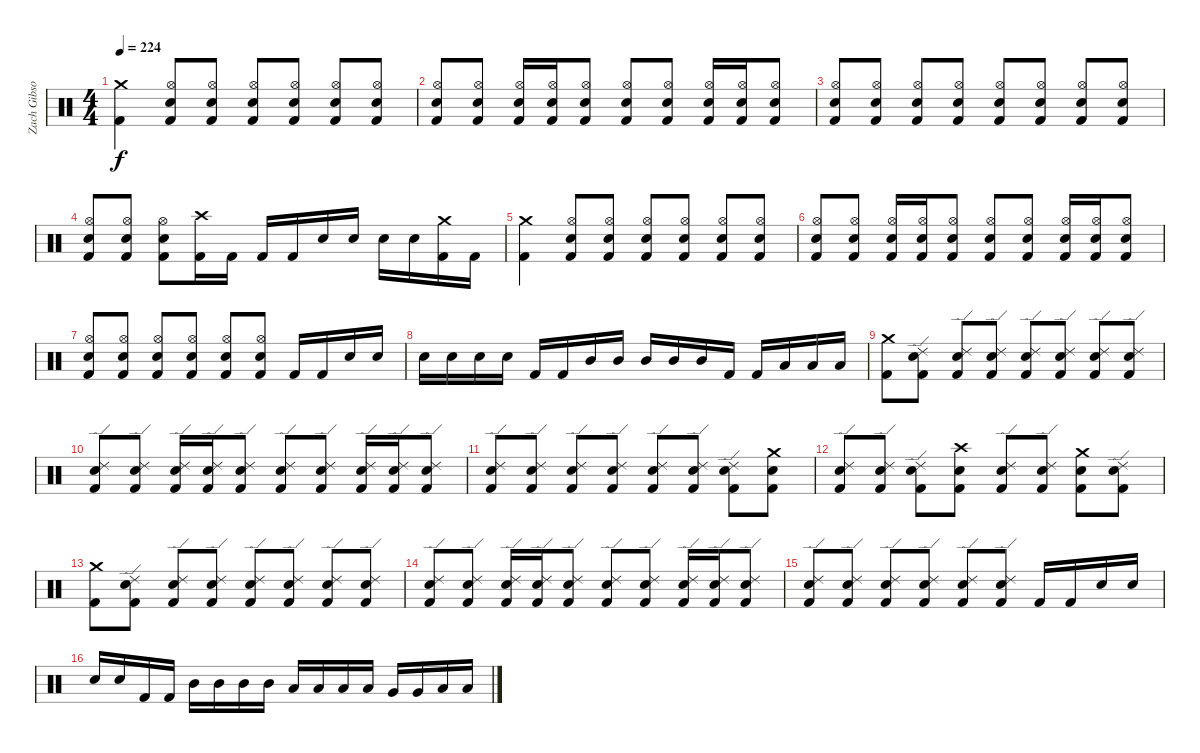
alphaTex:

\track ("Zach Gibson (Drums)" "Zach Gibso") {instrument percussion}
\staff {score}
\articulation defaults
\ts (4 4)
\tempo 224
\clef neutral
\ks c
("Crash medium (hit)" "Kick (hit) 2").4{dy f} ("Hi-Hat (open)" "Kick (hit) 2" "Snare (hit) 2").8 ("Hi-Hat (open)" "Kick (hit) 2" "Snare (hit) 2").8 ("Hi-Hat (open)" "Kick (hit) 2" "Snare (hit) 2").8 ("Hi-Hat (open)" "Kick (hit) 2" "Snare (hit) 2").8 ("Hi-Hat (open)" "Kick (hit) 2" "Snare (hit) 2").8 ("Hi-Hat (open)" "Kick (hit) 2" "Snare (hit) 2").8 |
("Hi-Hat (open)" "Kick (hit) 2" "Snare (hit) 2").8 ("Hi-Hat (open)" "Kick (hit) 2" "Snare (hit) 2").8 ("Hi-Hat (open)" "Kick (hit) 2" "Snare (hit) 2").16 ("Hi-Hat (open)" "Kick (hit) 2" "Snare (hit) 2").16 ("Hi-Hat (open)" "Kick (hit) 2" "Snare (hit) 2").8 ("Hi-Hat (open)" "Kick (hit) 2" "Snare (hit) 2").8 ("Hi-Hat (open)" "Kick (hit) 2" "Snare (hit) 2").8 ("Hi-Hat (open)" "Kick (hit) 2" "Snare (hit) 2").16 ("Hi-Hat (open)" "Kick (hit) 2" "Snare (hit) 2").16 ("Hi-Hat (open)" "Kick (hit) 2" "Snare (hit) 2").8 |
("Hi-Hat (open)" "Kick (hit) 2" "Snare (hit) 2").8 ("Hi-Hat (open)" "Kick (hit) 2" "Snare (hit) 2").8 ("Hi-Hat (open)" "Kick (hit) 2" "Snare (hit) 2").8 ("Hi-Hat (open)" "Kick (hit) 2" "Snare (hit) 2").8 ("Hi-Hat (open)" "Kick (hit) 2" "Snare (hit) 2").8 ("Hi-Hat (open)" "Kick (hit) 2" "Snare (hit) 2").8 ("Hi-Hat (open)" "Kick (hit) 2" "Snare (hit) 2").8 ("Hi-Hat (open)" "Kick (hit) 2" "Snare (hit) 2").8 |
("Hi-Hat (open)" "Kick (hit) 2" "Snare (hit) 2").8 ("Hi-Hat (open)" "Kick (hit) 2" "Snare (hit) 2").8 ("Hi-Hat (open)" "Kick (hit) 2" "Snare (hit) 2").8 ("Crash high (hit)" "Kick (hit) 2").16 "Kick (hit) 2".16 "Kick (hit) 2".16 "Kick (hit) 2".16 "Snare (hit) 2".16 "Snare (hit) 2".16 "Snare (hit) 2".16 "Snare (hit) 2".16 ("Crash medium (hit)" "Kick (hit) 2").16 "Kick (hit) 2".16 |
("Crash medium (hit)" "Kick (hit) 2").4 ("Hi-Hat (open)" "Kick (hit) 2" "Snare (hit) 2").8 ("Hi-Hat (open)" "Kick (hit) 2" "Snare (hit) 2").8 ("Hi-Hat (open)" "Kick (hit) 2" "Snare (hit) 2").8 ("Hi-Hat (open)" "Kick (hit) 2" "Snare (hit) 2").8 ("Hi-Hat (open)" "Kick (hit) 2" "Snare (hit) 2").8 ("Hi-Hat (open)" "Kick (hit) 2" "Snare (hit) 2").8 |
("Hi-Hat (open)" "Kick (hit) 2" "Snare (hit) 2").8 ("Hi-Hat (open)" "Kick (hit) 2" "Snare (hit) 2").8 ("Hi-Hat (open)" "Kick (hit) 2" "Snare (hit) 2").16 ("Hi-Hat (open)" "Kick (hit) 2" "Snare (hit) 2").16 ("Hi-Hat (open)" "Kick (hit) 2" "Snare (hit) 2").8 ("Hi-Hat (open)" "Kick (hit) 2" "Snare (hit) 2").8 ("Hi-Hat (open)" "Kick (hit) 2" "Snare (hit) 2").8 ("Hi-Hat (open)" "Kick (hit) 2" "Snare (hit) 2").16 ("Hi-Hat (open)" "Kick (hit) 2" "Snare (hit) 2").16 ("Hi-Hat (open)" "Kick (hit) 2" "Snare (hit) 2").8 |
("Hi-Hat (open)" "Kick (hit) 2" "Snare (hit) 2").8 ("Hi-Hat (open)" "Kick (hit) 2" "Snare (hit) 2").8 ("Hi-Hat (open)" "Kick (hit) 2" "Snare (hit) 2").8 ("Hi-Hat (open)" "Kick (hit) 2" "Snare (hit) 2").8 ("Hi-Hat (open)" "Kick (hit) 2" "Snare (hit) 2").8 ("Hi-Hat (open)" "Kick (hit) 2" "Snare (hit) 2").8 "Kick (hit) 2".16 "Kick (hit) 2".16 "Snare (hit) 2".16 "Snare (hit) 2".16 |
"Snare (hit) 2".16 "Snare (hit) 2".16 "Snare (hit) 2".16 "Snare (hit) 2".16 "Kick (hit) 2".16 "Kick (hit) 2".16 "Mid Tom (hit)".16 "Mid Tom (hit)".16 "Mid Tom (hit)".16 "Mid Tom (hit)".16 "Mid Tom (hit)".16 "Kick (hit) 2".16 "Kick (hit) 2".16 "Low Tom (hit)".16 "Low Tom (hit)".16 "Low Tom (hit)".16 |
("Crash medium (hit)" "Kick (hit) 2").8 ("Ride (edge) 2" "Kick (hit) 2" "Snare (hit) 2").8 ("Ride (edge) 2" "Kick (hit) 2" "Snare (hit) 2").8 ("Ride (edge) 2" "Kick (hit) 2" "Snare (hit) 2").8 ("Ride (edge) 2" "Kick (hit) 2" "Snare (hit) 2").8 ("Ride (edge) 2" "Kick (hit) 2" "Snare (hit) 2").8 ("Ride (edge) 2" "Kick (hit) 2" "Snare (hit) 2").8 ("Ride (edge) 2" "Kick (hit) 2" "Snare (hit) 2").8 |
("Ride (edge) 2" "Kick (hit) 2" "Snare (hit) 2").8 ("Ride (edge) 2" "Kick (hit) 2" "Snare (hit) 2").8 ("Ride (edge) 2" "Kick (hit) 2" "Snare (hit) 2").16 ("Ride (edge) 2" "Kick (hit) 2" "Snare (hit) 2").16 ("Ride (edge) 2" "Kick (hit) 2" "Snare (hit) 2").8 ("Ride (edge) 2" "Kick (hit) 2" "Snare (hit) 2").8 ("Ride (edge) 2" "Kick (hit) 2" "Snare (hit) 2").8 ("Ride (edge) 2" "Kick (hit) 2" "Snare (hit) 2").16 ("Ride (edge) 2" "Kick (hit) 2" "Snare (hit) 2").16 ("Ride (edge) 2" "Kick (hit) 2" "Snare (hit) 2").8 |
("Ride (edge) 2" "Kick (hit) 2" "Snare (hit) 2").8 ("Ride (edge) 2" "Kick (hit) 2" "Snare (hit) 2").8 ("Ride (edge) 2" "Kick (hit) 2" "Snare (hit) 2").8 ("Ride (edge) 2" "Kick (hit) 2" "Snare (hit) 2").8 ("Ride (edge) 2" "Kick (hit) 2" "Snare (hit) 2").8 ("Ride (edge) 2" "Kick (hit) 2" "Snare (hit) 2").8 ("Ride (edge) 2" "Kick (hit) 2" "Snare (hit) 2").8 ("Crash medium (hit)" "Kick (hit) 2" "Snare (hit) 2").8 |
("Ride (edge) 2" "Kick (hit) 2" "Snare (hit) 2").8 ("Ride (edge) 2" "Kick (hit) 2" "Snare (hit) 2").8 ("Ride (edge) 2" "Kick (hit) 2" "Snare (hit) 2").8 ("Crash high (hit)" "Kick (hit) 2" "Snare (hit) 2").8 ("Ride (edge) 2" "Kick (hit) 2" "Snare (hit) 2").8 ("Ride (edge) 2" "Kick (hit) 2" "Snare (hit) 2").8 ("Crash medium (hit)" "Kick (hit) 2" "Snare (hit) 2").8 ("Ride (edge) 2" "Kick (hit) 2" "Snare (hit) 2").8 |
("Crash medium (hit)" "Kick (hit) 2").8 ("Ride (edge) 2" "Kick (hit) 2" "Snare (hit) 2").8 ("Ride (edge) 2" "Kick (hit) 2" "Snare (hit) 2").8 ("Ride (edge) 2" "Kick (hit) 2" "Snare (hit) 2").8 ("Ride (edge) 2" "Kick (hit) 2" "Snare (hit) 2").8 ("Ride (edge) 2" "Kick (hit) 2" "Snare (hit) 2").8 ("Ride (edge) 2" "Kick (hit) 2" "Snare (hit) 2").8 ("Ride (edge) 2" "Kick (hit) 2" "Snare (hit) 2").8 |
("Ride (edge) 2" "Kick (hit) 2" "Snare (hit) 2").8 ("Ride (edge) 2" "Kick (hit) 2" "Snare (hit) 2").8 ("Ride (edge) 2" "Kick (hit) 2" "Snare (hit) 2").16 ("Ride (edge) 2" "Kick (hit) 2" "Snare (hit) 2").16 ("Ride (edge) 2" "Kick (hit) 2" "Snare (hit) 2").8 ("Ride (edge) 2" "Kick (hit) 2" "Snare (hit) 2").8 ("Ride (edge) 2" "Kick (hit) 2" "Snare (hit) 2").8 ("Ride (edge) 2" "Kick (hit) 2" "Snare (hit) 2").16 ("Ride (edge) 2" "Kick (hit) 2" "Snare (hit) 2").16 ("Ride (edge) 2" "Kick (hit) 2" "Snare (hit) 2").8 |
("Ride (edge) 2" "Kick (hit) 2" "Snare (hit) 2").8 ("Ride (edge) 2" "Kick (hit) 2" "Snare (hit) 2").8 ("Ride (edge) 2" "Kick (hit) 2" "Snare (hit) 2").8 ("Ride (edge) 2" "Kick (hit) 2" "Snare (hit) 2").8 ("Ride (edge) 2" "Kick (hit) 2" "Snare (hit) 2").8 ("Ride (edge) 2" "Kick (hit) 2" "Snare (hit) 2").8 "Kick (hit) 2".16 "Kick (hit) 2".16 "Snare (hit) 2".16 "Snare (hit) 2".16 |
"Snare (hit) 2".16 "Snare (hit) 2".16 "Kick (hit) 2".16 "Kick (hit) 2".16 "Mid Tom (hit)".16 "Mid Tom (hit)".16 "Mid Tom (hit)".16 "Mid Tom (hit)".16 "Low Tom (hit)".16 "Low Tom (hit)".16 "Low Tom (hit)".16 "Low Tom (hit)".16 "Very Low Tom (hit)".16 "Very Low Tom (hit)".16 "Low Floor Tom (hit)".16 "Low Floor Tom (hit)".16
